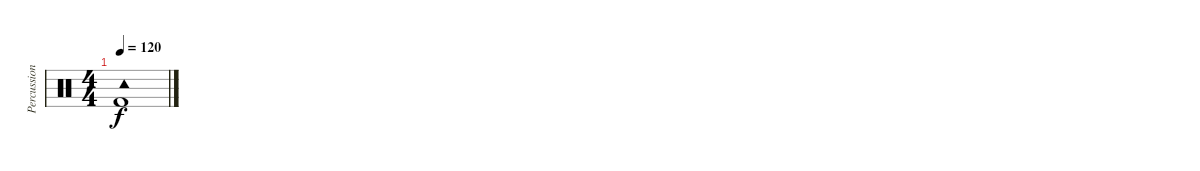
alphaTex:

\track ("Percussions" "Percussion") {instrument percussion}
\staff {score}
\articulation defaults
\ts (4 4)
\tempo 120
\clef neutral
\ks c
("Tambourine (hit)" "Kick (hit) 2").1{dy f}
